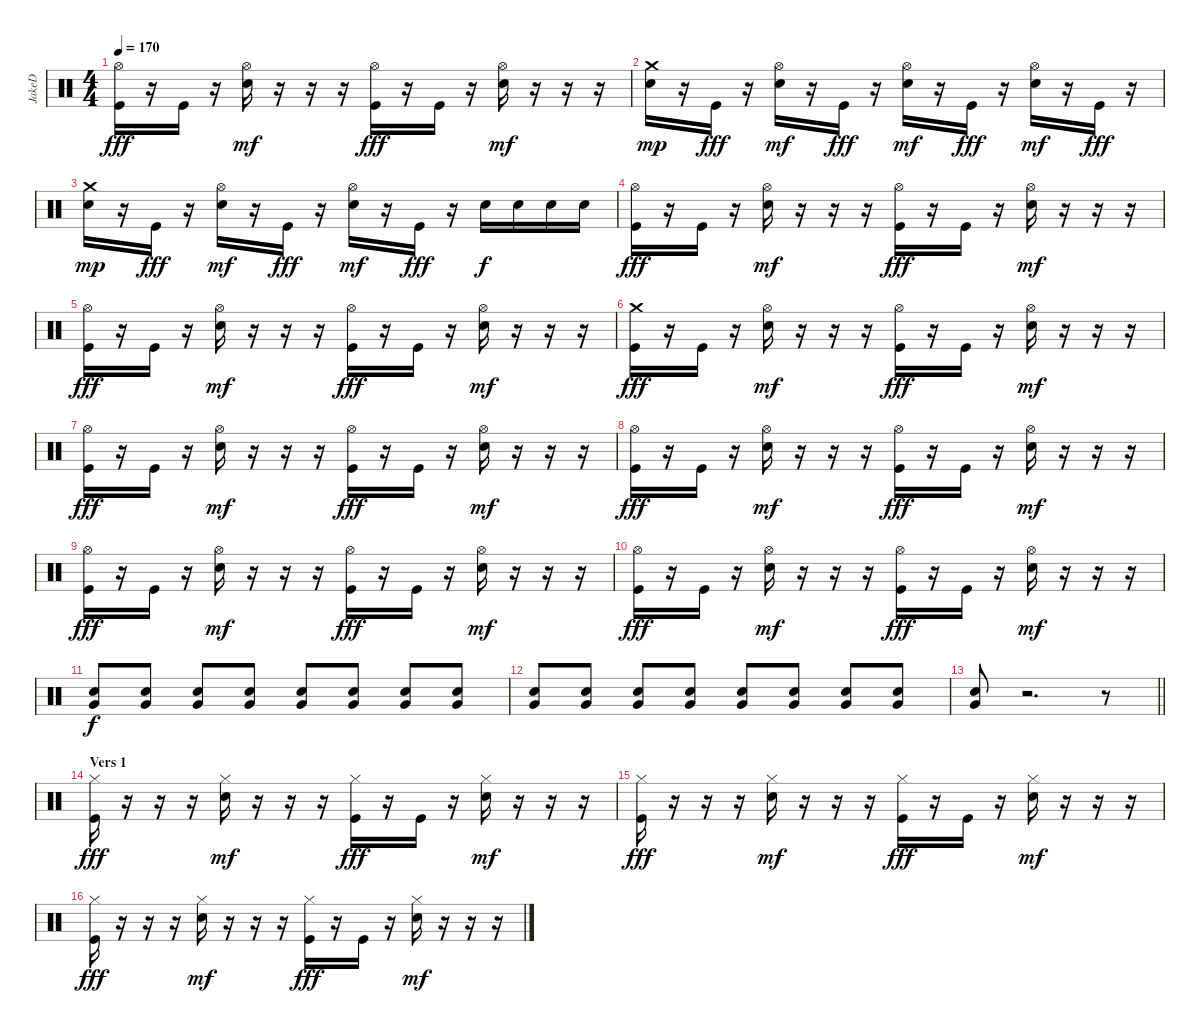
\track ("JakeD" "JakeD") {instrument percussion}
\staff {score}
\articulation defaults
\ts (4 4)
\tempo 170
\clef neutral
\ks c
("Hi-Hat (open)" "Kick (hit)").16{dy fff} r.16 "Kick (hit)".16 r.16 ("Hi-Hat (open)" "Electric Snare (hit)").16{dy mf} r.16 r.16 r.16 ("Hi-Hat (open)" "Kick (hit)").16{dy fff} r.16 "Kick (hit)".16 r.16 ("Hi-Hat (open)" "Electric Snare (hit)").16{dy mf} r.16 r.16 r.16 |
("Crash medium (hit)" "Electric Snare (hit)").16{dy mp} r.16 "Kick (hit)".16{dy fff} r.16 ("Hi-Hat (open)" "Electric Snare (hit)").16{dy mf} r.16 "Kick (hit)".16{dy fff} r.16 ("Hi-Hat (open)" "Electric Snare (hit)").16{dy mf} r.16 "Kick (hit)".16{dy fff} r.16 ("Hi-Hat (open)" "Electric Snare (hit)").16{dy mf} r.16 "Kick (hit)".16{dy fff} r.16 |
("Crash medium (hit)" "Electric Snare (hit)").16{dy mp} r.16 "Kick (hit)".16{dy fff} r.16 ("Hi-Hat (open)" "Electric Snare (hit)").16{dy mf} r.16 "Kick (hit)".16{dy fff} r.16 ("Hi-Hat (open)" "Electric Snare (hit)").16{dy mf} r.16 "Kick (hit)".16{dy fff} r.16 "Electric Snare (hit)".16{dy f} "Electric Snare (hit)".16 "Electric Snare (hit)".16 "Electric Snare (hit)".16 |
("Hi-Hat (open)" "Kick (hit)").16{dy fff} r.16 "Kick (hit)".16 r.16 ("Hi-Hat (open)" "Electric Snare (hit)").16{dy mf} r.16 r.16 r.16 ("Hi-Hat (open)" "Kick (hit)").16{dy fff} r.16 "Kick (hit)".16 r.16 ("Hi-Hat (open)" "Electric Snare (hit)").16{dy mf} r.16 r.16 r.16 |
("Hi-Hat (open)" "Kick (hit)").16{dy fff} r.16 "Kick (hit)".16 r.16 ("Hi-Hat (open)" "Electric Snare (hit)").16{dy mf} r.16 r.16 r.16 ("Hi-Hat (open)" "Kick (hit)").16{dy fff} r.16 "Kick (hit)".16 r.16 ("Hi-Hat (open)" "Electric Snare (hit)").16{dy mf} r.16 r.16 r.16 |
("Crash medium (hit)" "Kick (hit)").16{dy fff} r.16 "Kick (hit)".16 r.16 ("Hi-Hat (open)" "Electric Snare (hit)").16{dy mf} r.16 r.16 r.16 ("Hi-Hat (open)" "Kick (hit)").16{dy fff} r.16 "Kick (hit)".16 r.16 ("Hi-Hat (open)" "Electric Snare (hit)").16{dy mf} r.16 r.16 r.16 |
("Hi-Hat (open)" "Kick (hit)").16{dy fff} r.16 "Kick (hit)".16 r.16 ("Hi-Hat (open)" "Electric Snare (hit)").16{dy mf} r.16 r.16 r.16 ("Hi-Hat (open)" "Kick (hit)").16{dy fff} r.16 "Kick (hit)".16 r.16 ("Hi-Hat (open)" "Electric Snare (hit)").16{dy mf} r.16 r.16 r.16 |
("Hi-Hat (open)" "Kick (hit)").16{dy fff} r.16 "Kick (hit)".16 r.16 ("Hi-Hat (open)" "Electric Snare (hit)").16{dy mf} r.16 r.16 r.16 ("Hi-Hat (open)" "Kick (hit)").16{dy fff} r.16 "Kick (hit)".16 r.16 ("Hi-Hat (open)" "Electric Snare (hit)").16{dy mf} r.16 r.16 r.16 |
("Hi-Hat (open)" "Kick (hit)").16{dy fff} r.16 "Kick (hit)".16 r.16 ("Hi-Hat (open)" "Electric Snare (hit)").16{dy mf} r.16 r.16 r.16 ("Hi-Hat (open)" "Kick (hit)").16{dy fff} r.16 "Kick (hit)".16 r.16 ("Hi-Hat (open)" "Electric Snare (hit)").16{dy mf} r.16 r.16 r.16 |
("Hi-Hat (open)" "Kick (hit)").16{dy fff} r.16 "Kick (hit)".16 r.16 ("Hi-Hat (open)" "Electric Snare (hit)").16{dy mf} r.16 r.16 r.16 ("Hi-Hat (open)" "Kick (hit)").16{dy fff} r.16 "Kick (hit)".16 r.16 ("Hi-Hat (open)" "Electric Snare (hit)").16{dy mf} r.16 r.16 r.16 |
("Very Low Tom (hit)" "Electric Snare (hit)").8{dy f} ("Very Low Tom (hit)" "Electric Snare (hit)").8 ("Very Low Tom (hit)" "Electric Snare (hit)").8 ("Very Low Tom (hit)" "Electric Snare (hit)").8 ("Very Low Tom (hit)" "Electric Snare (hit)").8 ("Very Low Tom (hit)" "Electric Snare (hit)").8 ("Very Low Tom (hit)" "Electric Snare (hit)").8 ("Very Low Tom (hit)" "Electric Snare (hit)").8 |
("Very Low Tom (hit)" "Electric Snare (hit)").8 ("Very Low Tom (hit)" "Electric Snare (hit)").8 ("Very Low Tom (hit)" "Electric Snare (hit)").8 ("Very Low Tom (hit)" "Electric Snare (hit)").8 ("Very Low Tom (hit)" "Electric Snare (hit)").8 ("Very Low Tom (hit)" "Electric Snare (hit)").8 ("Very Low Tom (hit)" "Electric Snare (hit)").8 ("Very Low Tom (hit)" "Electric Snare (hit)").8 |
\barLineRight lightlight
("Very Low Tom (hit)" "Electric Snare (hit)").8 r.2{d} r.8 |
\section ("" "Vers 1")
("Hi-Hat (closed)" "Kick (hit)").16{dy fff} r.16 r.16 r.16 ("Hi-Hat (closed)" "Electric Snare (hit)").16{dy mf} r.16 r.16 r.16 ("Hi-Hat (closed)" "Kick (hit)").16{dy fff} r.16 "Kick (hit)".16 r.16 ("Hi-Hat (closed)" "Electric Snare (hit)").16{dy mf} r.16 r.16 r.16 |
("Hi-Hat (closed)" "Kick (hit)").16{dy fff} r.16 r.16 r.16 ("Hi-Hat (closed)" "Electric Snare (hit)").16{dy mf} r.16 r.16 r.16 ("Hi-Hat (closed)" "Kick (hit)").16{dy fff} r.16 "Kick (hit)".16 r.16 ("Hi-Hat (closed)" "Electric Snare (hit)").16{dy mf} r.16 r.16 r.16 |
("Hi-Hat (closed)" "Kick (hit)").16{dy fff} r.16 r.16 r.16 ("Hi-Hat (closed)" "Electric Snare (hit)").16{dy mf} r.16 r.16 r.16 ("Hi-Hat (closed)" "Kick (hit)").16{dy fff} r.16 "Kick (hit)".16 r.16 ("Hi-Hat (closed)" "Electric Snare (hit)").16{dy mf} r.16 r.16 r.16
